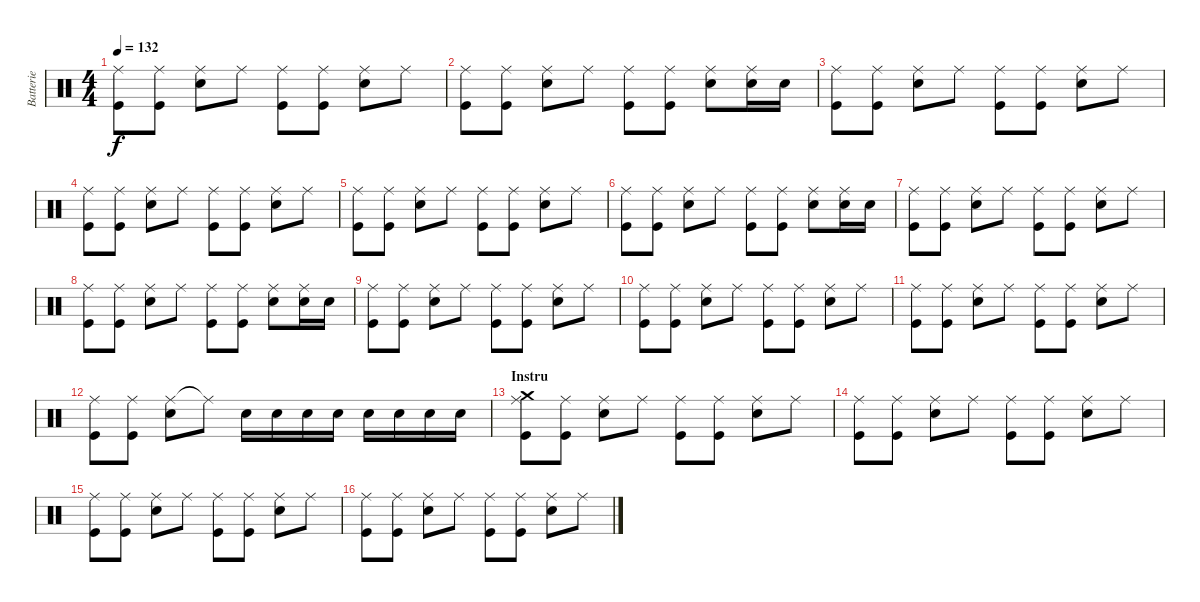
\track ("Batterie" "Batterie") {instrument percussion}
\staff {score}
\articulation defaults
\ts (4 4)
\tempo 132
\clef neutral
\ks c
("Ride (middle)" "Kick (hit)").8{dy f} ("Ride (middle)" "Kick (hit)").8 ("Ride (middle)" "Snare (hit) 2").8 "Ride (middle)".8 ("Ride (middle)" "Kick (hit)").8 ("Ride (middle)" "Kick (hit)").8 ("Ride (middle)" "Snare (hit) 2").8 "Ride (middle)".8 |
("Ride (middle)" "Kick (hit)").8 ("Ride (middle)" "Kick (hit)").8 ("Ride (middle)" "Snare (hit) 2").8 "Ride (middle)".8 ("Ride (middle)" "Kick (hit)").8 ("Ride (middle)" "Kick (hit)").8 ("Ride (middle)" "Snare (hit) 2").8 ("Ride (middle)" "Snare (hit) 2").16 "Snare (hit) 2".16 |
("Ride (middle)" "Kick (hit)").8 ("Ride (middle)" "Kick (hit)").8 ("Ride (middle)" "Snare (hit) 2").8 "Ride (middle)".8 ("Ride (middle)" "Kick (hit)").8 ("Ride (middle)" "Kick (hit)").8 ("Ride (middle)" "Snare (hit) 2").8 "Ride (middle)".8 |
("Ride (middle)" "Kick (hit)").8 ("Ride (middle)" "Kick (hit)").8 ("Ride (middle)" "Snare (hit) 2").8 "Ride (middle)".8 ("Ride (middle)" "Kick (hit)").8 ("Ride (middle)" "Kick (hit)").8 ("Ride (middle)" "Snare (hit) 2").8 "Ride (middle)".8 |
("Ride (middle)" "Kick (hit)").8 ("Ride (middle)" "Kick (hit)").8 ("Ride (middle)" "Snare (hit) 2").8 "Ride (middle)".8 ("Ride (middle)" "Kick (hit)").8 ("Ride (middle)" "Kick (hit)").8 ("Ride (middle)" "Snare (hit) 2").8 "Ride (middle)".8 |
("Ride (middle)" "Kick (hit)").8 ("Ride (middle)" "Kick (hit)").8 ("Ride (middle)" "Snare (hit) 2").8 "Ride (middle)".8 ("Ride (middle)" "Kick (hit)").8 ("Ride (middle)" "Kick (hit)").8 ("Ride (middle)" "Snare (hit) 2").8 ("Ride (middle)" "Snare (hit) 2").16 "Snare (hit) 2".16 |
("Ride (middle)" "Kick (hit)").8 ("Ride (middle)" "Kick (hit)").8 ("Ride (middle)" "Snare (hit) 2").8 "Ride (middle)".8 ("Ride (middle)" "Kick (hit)").8 ("Ride (middle)" "Kick (hit)").8 ("Ride (middle)" "Snare (hit) 2").8 "Ride (middle)".8 |
("Ride (middle)" "Kick (hit)").8 ("Ride (middle)" "Kick (hit)").8 ("Ride (middle)" "Snare (hit) 2").8 "Ride (middle)".8 ("Ride (middle)" "Kick (hit)").8 ("Ride (middle)" "Kick (hit)").8 ("Ride (middle)" "Snare (hit) 2").8 ("Ride (middle)" "Snare (hit) 2").16 "Snare (hit) 2".16 |
("Ride (middle)" "Kick (hit)").8 ("Ride (middle)" "Kick (hit)").8 ("Ride (middle)" "Snare (hit) 2").8 "Ride (middle)".8 ("Ride (middle)" "Kick (hit)").8 ("Ride (middle)" "Kick (hit)").8 ("Ride (middle)" "Snare (hit) 2").8 "Ride (middle)".8 |
("Ride (middle)" "Kick (hit)").8 ("Ride (middle)" "Kick (hit)").8 ("Ride (middle)" "Snare (hit) 2").8 "Ride (middle)".8 ("Ride (middle)" "Kick (hit)").8 ("Ride (middle)" "Kick (hit)").8 ("Ride (middle)" "Snare (hit) 2").8 "Ride (middle)".8 |
("Ride (middle)" "Kick (hit)").8 ("Ride (middle)" "Kick (hit)").8 ("Ride (middle)" "Snare (hit) 2").8 "Ride (middle)".8 ("Ride (middle)" "Kick (hit)").8 ("Ride (middle)" "Kick (hit)").8 ("Ride (middle)" "Snare (hit) 2").8 "Ride (middle)".8 |
("Ride (middle)" "Kick (hit)").8 ("Ride (middle)" "Kick (hit)").8 ("Ride (middle)" "Snare (hit) 2").8 "Ride (middle)"{t}.8 "Snare (hit) 2".16 "Snare (hit) 2".16 "Snare (hit) 2".16 "Snare (hit) 2".16 "Snare (hit) 2".16 "Snare (hit) 2".16 "Snare (hit) 2".16 "Snare (hit) 2".16 |
\section ("" "Instru")
("Ride (middle)" "Crash medium (hit)" "Kick (hit)").8 ("Ride (middle)" "Kick (hit)").8 ("Ride (middle)" "Snare (hit) 2").8 "Ride (middle)".8 ("Ride (middle)" "Kick (hit)").8 ("Ride (middle)" "Kick (hit)").8 ("Ride (middle)" "Snare (hit) 2").8 "Ride (middle)".8 |
("Ride (middle)" "Kick (hit)").8 ("Ride (middle)" "Kick (hit)").8 ("Ride (middle)" "Snare (hit) 2").8 "Ride (middle)".8 ("Ride (middle)" "Kick (hit)").8 ("Ride (middle)" "Kick (hit)").8 ("Ride (middle)" "Snare (hit) 2").8 "Ride (middle)".8 |
("Ride (middle)" "Kick (hit)").8 ("Ride (middle)" "Kick (hit)").8 ("Ride (middle)" "Snare (hit) 2").8 "Ride (middle)".8 ("Ride (middle)" "Kick (hit)").8 ("Ride (middle)" "Kick (hit)").8 ("Ride (middle)" "Snare (hit) 2").8 "Ride (middle)".8 |
("Ride (middle)" "Kick (hit)").8 ("Ride (middle)" "Kick (hit)").8 ("Ride (middle)" "Snare (hit) 2").8 "Ride (middle)".8 ("Ride (middle)" "Kick (hit)").8 ("Ride (middle)" "Kick (hit)").8 ("Ride (middle)" "Snare (hit) 2").8 "Ride (middle)".8
